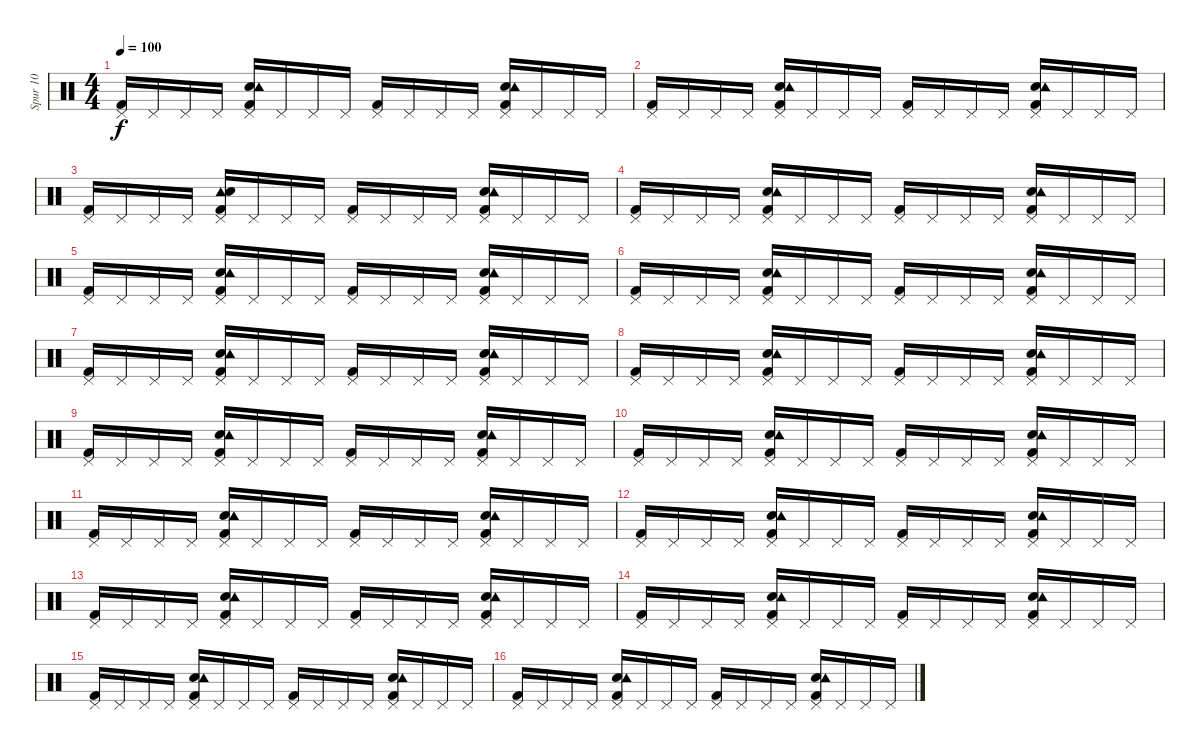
\track ("Spur 10" "Spur 10") {instrument percussion}
\staff {score}
\articulation defaults
\ts (4 4)
\tempo 100
\clef neutral
\ks c
("Kick (hit) 2" "Pedal Hi-Hat (hit)").16{dy f} "Pedal Hi-Hat (hit)".16 "Pedal Hi-Hat (hit)".16 "Pedal Hi-Hat (hit)".16 ("Snare (hit) 2" "Kick (hit) 2" "Tambourine (hit)" "Pedal Hi-Hat (hit)").16 "Pedal Hi-Hat (hit)".16 "Pedal Hi-Hat (hit)".16 "Pedal Hi-Hat (hit)".16 ("Kick (hit) 2" "Pedal Hi-Hat (hit)").16 "Pedal Hi-Hat (hit)".16 "Pedal Hi-Hat (hit)".16 "Pedal Hi-Hat (hit)".16 ("Kick (hit) 2" "Snare (hit) 2" "Tambourine (hit)" "Pedal Hi-Hat (hit)").16 "Pedal Hi-Hat (hit)".16 "Pedal Hi-Hat (hit)".16 "Pedal Hi-Hat (hit)".16 |
("Pedal Hi-Hat (hit)" "Kick (hit) 2").16 "Pedal Hi-Hat (hit)".16 "Pedal Hi-Hat (hit)".16 "Pedal Hi-Hat (hit)".16 ("Pedal Hi-Hat (hit)" "Snare (hit) 2" "Kick (hit) 2" "Tambourine (hit)").16 "Pedal Hi-Hat (hit)".16 "Pedal Hi-Hat (hit)".16 "Pedal Hi-Hat (hit)".16 ("Pedal Hi-Hat (hit)" "Kick (hit) 2").16 "Pedal Hi-Hat (hit)".16 "Pedal Hi-Hat (hit)".16 "Pedal Hi-Hat (hit)".16 ("Pedal Hi-Hat (hit)" "Kick (hit) 2" "Snare (hit) 2" "Tambourine (hit)").16 "Pedal Hi-Hat (hit)".16 "Pedal Hi-Hat (hit)".16 "Pedal Hi-Hat (hit)".16 |
("Pedal Hi-Hat (hit)" "Kick (hit) 2").16 "Pedal Hi-Hat (hit)".16 "Pedal Hi-Hat (hit)".16 "Pedal Hi-Hat (hit)".16 ("Pedal Hi-Hat (hit)" "Tambourine (hit)" "Kick (hit) 2" "Snare (hit) 2").16 "Pedal Hi-Hat (hit)".16 "Pedal Hi-Hat (hit)".16 "Pedal Hi-Hat (hit)".16 ("Pedal Hi-Hat (hit)" "Kick (hit) 2").16 "Pedal Hi-Hat (hit)".16 "Pedal Hi-Hat (hit)".16 "Pedal Hi-Hat (hit)".16 ("Pedal Hi-Hat (hit)" "Snare (hit) 2" "Tambourine (hit)" "Kick (hit) 2").16 "Pedal Hi-Hat (hit)".16 "Pedal Hi-Hat (hit)".16 "Pedal Hi-Hat (hit)".16 |
("Pedal Hi-Hat (hit)" "Kick (hit) 2").16 "Pedal Hi-Hat (hit)".16 "Pedal Hi-Hat (hit)".16 "Pedal Hi-Hat (hit)".16 ("Pedal Hi-Hat (hit)" "Snare (hit) 2" "Kick (hit) 2" "Tambourine (hit)").16 "Pedal Hi-Hat (hit)".16 "Pedal Hi-Hat (hit)".16 "Pedal Hi-Hat (hit)".16 ("Pedal Hi-Hat (hit)" "Kick (hit) 2").16 "Pedal Hi-Hat (hit)".16 "Pedal Hi-Hat (hit)".16 "Pedal Hi-Hat (hit)".16 ("Pedal Hi-Hat (hit)" "Snare (hit) 2" "Kick (hit) 2" "Tambourine (hit)").16 "Pedal Hi-Hat (hit)".16 "Pedal Hi-Hat (hit)".16 "Pedal Hi-Hat (hit)".16 |
("Pedal Hi-Hat (hit)" "Kick (hit) 2").16 "Pedal Hi-Hat (hit)".16 "Pedal Hi-Hat (hit)".16 "Pedal Hi-Hat (hit)".16 ("Pedal Hi-Hat (hit)" "Kick (hit) 2" "Snare (hit) 2" "Tambourine (hit)").16 "Pedal Hi-Hat (hit)".16 "Pedal Hi-Hat (hit)".16 "Pedal Hi-Hat (hit)".16 ("Pedal Hi-Hat (hit)" "Kick (hit) 2").16 "Pedal Hi-Hat (hit)".16 "Pedal Hi-Hat (hit)".16 "Pedal Hi-Hat (hit)".16 ("Pedal Hi-Hat (hit)" "Kick (hit) 2" "Snare (hit) 2" "Tambourine (hit)").16 "Pedal Hi-Hat (hit)".16 "Pedal Hi-Hat (hit)".16 "Pedal Hi-Hat (hit)".16 |
("Kick (hit) 2" "Pedal Hi-Hat (hit)").16 "Pedal Hi-Hat (hit)".16 "Pedal Hi-Hat (hit)".16 "Pedal Hi-Hat (hit)".16 ("Kick (hit) 2" "Snare (hit) 2" "Tambourine (hit)" "Pedal Hi-Hat (hit)").16 "Pedal Hi-Hat (hit)".16 "Pedal Hi-Hat (hit)".16 "Pedal Hi-Hat (hit)".16 ("Kick (hit) 2" "Pedal Hi-Hat (hit)").16 "Pedal Hi-Hat (hit)".16 "Pedal Hi-Hat (hit)".16 "Pedal Hi-Hat (hit)".16 ("Snare (hit) 2" "Kick (hit) 2" "Tambourine (hit)" "Pedal Hi-Hat (hit)").16 "Pedal Hi-Hat (hit)".16 "Pedal Hi-Hat (hit)".16 "Pedal Hi-Hat (hit)".16 |
("Kick (hit) 2" "Pedal Hi-Hat (hit)").16 "Pedal Hi-Hat (hit)".16 "Pedal Hi-Hat (hit)".16 "Pedal Hi-Hat (hit)".16 ("Kick (hit) 2" "Snare (hit) 2" "Tambourine (hit)" "Pedal Hi-Hat (hit)").16 "Pedal Hi-Hat (hit)".16 "Pedal Hi-Hat (hit)".16 "Pedal Hi-Hat (hit)".16 ("Kick (hit) 2" "Pedal Hi-Hat (hit)").16 "Pedal Hi-Hat (hit)".16 "Pedal Hi-Hat (hit)".16 "Pedal Hi-Hat (hit)".16 ("Kick (hit) 2" "Snare (hit) 2" "Tambourine (hit)" "Pedal Hi-Hat (hit)").16 "Pedal Hi-Hat (hit)".16 "Pedal Hi-Hat (hit)".16 "Pedal Hi-Hat (hit)".16 |
("Kick (hit) 2" "Pedal Hi-Hat (hit)").16 "Pedal Hi-Hat (hit)".16 "Pedal Hi-Hat (hit)".16 "Pedal Hi-Hat (hit)".16 ("Snare (hit) 2" "Kick (hit) 2" "Tambourine (hit)" "Pedal Hi-Hat (hit)").16 "Pedal Hi-Hat (hit)".16 "Pedal Hi-Hat (hit)".16 "Pedal Hi-Hat (hit)".16 ("Kick (hit) 2" "Pedal Hi-Hat (hit)").16 "Pedal Hi-Hat (hit)".16 "Pedal Hi-Hat (hit)".16 "Pedal Hi-Hat (hit)".16 ("Kick (hit) 2" "Snare (hit) 2" "Tambourine (hit)" "Pedal Hi-Hat (hit)").16 "Pedal Hi-Hat (hit)".16 "Pedal Hi-Hat (hit)".16 "Pedal Hi-Hat (hit)".16 |
("Kick (hit) 2" "Pedal Hi-Hat (hit)").16 "Pedal Hi-Hat (hit)".16 "Pedal Hi-Hat (hit)".16 "Pedal Hi-Hat (hit)".16 ("Snare (hit) 2" "Kick (hit) 2" "Tambourine (hit)" "Pedal Hi-Hat (hit)").16 "Pedal Hi-Hat (hit)".16 "Pedal Hi-Hat (hit)".16 "Pedal Hi-Hat (hit)".16 ("Kick (hit) 2" "Pedal Hi-Hat (hit)").16 "Pedal Hi-Hat (hit)".16 "Pedal Hi-Hat (hit)".16 "Pedal Hi-Hat (hit)".16 ("Kick (hit) 2" "Snare (hit) 2" "Tambourine (hit)" "Pedal Hi-Hat (hit)").16 "Pedal Hi-Hat (hit)".16 "Pedal Hi-Hat (hit)".16 "Pedal Hi-Hat (hit)".16 |
("Kick (hit) 2" "Pedal Hi-Hat (hit)").16 "Pedal Hi-Hat (hit)".16 "Pedal Hi-Hat (hit)".16 "Pedal Hi-Hat (hit)".16 ("Kick (hit) 2" "Snare (hit) 2" "Tambourine (hit)" "Pedal Hi-Hat (hit)").16 "Pedal Hi-Hat (hit)".16 "Pedal Hi-Hat (hit)".16 "Pedal Hi-Hat (hit)".16 ("Kick (hit) 2" "Pedal Hi-Hat (hit)").16 "Pedal Hi-Hat (hit)".16 "Pedal Hi-Hat (hit)".16 "Pedal Hi-Hat (hit)".16 ("Snare (hit) 2" "Kick (hit) 2" "Tambourine (hit)" "Pedal Hi-Hat (hit)").16 "Pedal Hi-Hat (hit)".16 "Pedal Hi-Hat (hit)".16 "Pedal Hi-Hat (hit)".16 |
("Kick (hit) 2" "Pedal Hi-Hat (hit)").16 "Pedal Hi-Hat (hit)".16 "Pedal Hi-Hat (hit)".16 "Pedal Hi-Hat (hit)".16 ("Kick (hit) 2" "Snare (hit) 2" "Tambourine (hit)" "Pedal Hi-Hat (hit)").16 "Pedal Hi-Hat (hit)".16 "Pedal Hi-Hat (hit)".16 "Pedal Hi-Hat (hit)".16 ("Kick (hit) 2" "Pedal Hi-Hat (hit)").16 "Pedal Hi-Hat (hit)".16 "Pedal Hi-Hat (hit)".16 "Pedal Hi-Hat (hit)".16 ("Kick (hit) 2" "Snare (hit) 2" "Tambourine (hit)" "Pedal Hi-Hat (hit)").16 "Pedal Hi-Hat (hit)".16 "Pedal Hi-Hat (hit)".16 "Pedal Hi-Hat (hit)".16 |
("Kick (hit) 2" "Pedal Hi-Hat (hit)").16 "Pedal Hi-Hat (hit)".16 "Pedal Hi-Hat (hit)".16 "Pedal Hi-Hat (hit)".16 ("Snare (hit) 2" "Kick (hit) 2" "Tambourine (hit)" "Pedal Hi-Hat (hit)").16 "Pedal Hi-Hat (hit)".16 "Pedal Hi-Hat (hit)".16 "Pedal Hi-Hat (hit)".16 ("Kick (hit) 2" "Pedal Hi-Hat (hit)").16 "Pedal Hi-Hat (hit)".16 "Pedal Hi-Hat (hit)".16 "Pedal Hi-Hat (hit)".16 ("Kick (hit) 2" "Snare (hit) 2" "Tambourine (hit)" "Pedal Hi-Hat (hit)").16 "Pedal Hi-Hat (hit)".16 "Pedal Hi-Hat (hit)".16 "Pedal Hi-Hat (hit)".16 |
("Kick (hit) 2" "Pedal Hi-Hat (hit)").16 "Pedal Hi-Hat (hit)".16 "Pedal Hi-Hat (hit)".16 "Pedal Hi-Hat (hit)".16 ("Snare (hit) 2" "Kick (hit) 2" "Tambourine (hit)" "Pedal Hi-Hat (hit)").16 "Pedal Hi-Hat (hit)".16 "Pedal Hi-Hat (hit)".16 "Pedal Hi-Hat (hit)".16 ("Kick (hit) 2" "Pedal Hi-Hat (hit)").16 "Pedal Hi-Hat (hit)".16 "Pedal Hi-Hat (hit)".16 "Pedal Hi-Hat (hit)".16 ("Kick (hit) 2" "Snare (hit) 2" "Tambourine (hit)" "Pedal Hi-Hat (hit)").16 "Pedal Hi-Hat (hit)".16 "Pedal Hi-Hat (hit)".16 "Pedal Hi-Hat (hit)".16 |
("Kick (hit) 2" "Pedal Hi-Hat (hit)").16 "Pedal Hi-Hat (hit)".16 "Pedal Hi-Hat (hit)".16 "Pedal Hi-Hat (hit)".16 ("Kick (hit) 2" "Snare (hit) 2" "Tambourine (hit)" "Pedal Hi-Hat (hit)").16 "Pedal Hi-Hat (hit)".16 "Pedal Hi-Hat (hit)".16 "Pedal Hi-Hat (hit)".16 ("Kick (hit) 2" "Pedal Hi-Hat (hit)").16 "Pedal Hi-Hat (hit)".16 "Pedal Hi-Hat (hit)".16 "Pedal Hi-Hat (hit)".16 ("Snare (hit) 2" "Kick (hit) 2" "Tambourine (hit)" "Pedal Hi-Hat (hit)").16 "Pedal Hi-Hat (hit)".16 "Pedal Hi-Hat (hit)".16 "Pedal Hi-Hat (hit)".16 |
("Kick (hit) 2" "Pedal Hi-Hat (hit)").16 "Pedal Hi-Hat (hit)".16 "Pedal Hi-Hat (hit)".16 "Pedal Hi-Hat (hit)".16 ("Kick (hit) 2" "Snare (hit) 2" "Tambourine (hit)" "Pedal Hi-Hat (hit)").16 "Pedal Hi-Hat (hit)".16 "Pedal Hi-Hat (hit)".16 "Pedal Hi-Hat (hit)".16 ("Kick (hit) 2" "Pedal Hi-Hat (hit)").16 "Pedal Hi-Hat (hit)".16 "Pedal Hi-Hat (hit)".16 "Pedal Hi-Hat (hit)".16 ("Kick (hit) 2" "Snare (hit) 2" "Tambourine (hit)" "Pedal Hi-Hat (hit)").16 "Pedal Hi-Hat (hit)".16 "Pedal Hi-Hat (hit)".16 "Pedal Hi-Hat (hit)".16 |
("Kick (hit) 2" "Pedal Hi-Hat (hit)").16 "Pedal Hi-Hat (hit)".16 "Pedal Hi-Hat (hit)".16 "Pedal Hi-Hat (hit)".16 ("Snare (hit) 2" "Kick (hit) 2" "Tambourine (hit)" "Pedal Hi-Hat (hit)").16 "Pedal Hi-Hat (hit)".16 "Pedal Hi-Hat (hit)".16 "Pedal Hi-Hat (hit)".16 ("Kick (hit) 2" "Pedal Hi-Hat (hit)").16 "Pedal Hi-Hat (hit)".16 "Pedal Hi-Hat (hit)".16 "Pedal Hi-Hat (hit)".16 ("Kick (hit) 2" "Snare (hit) 2" "Tambourine (hit)" "Pedal Hi-Hat (hit)").16 "Pedal Hi-Hat (hit)".16 "Pedal Hi-Hat (hit)".16 "Pedal Hi-Hat (hit)".16
